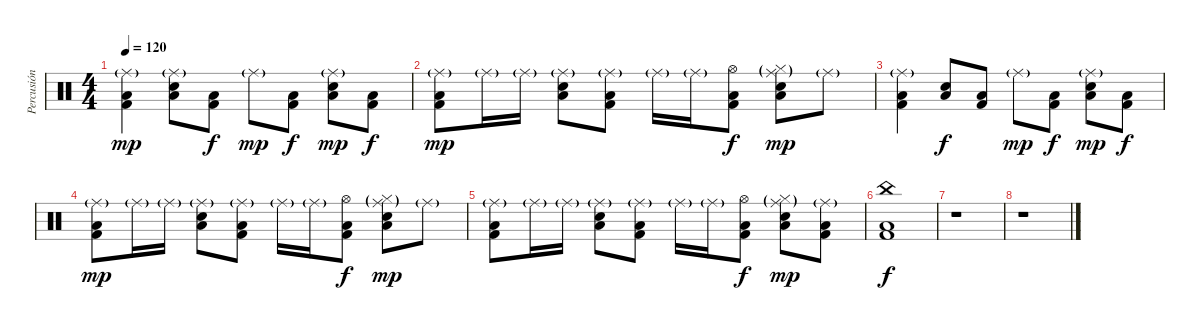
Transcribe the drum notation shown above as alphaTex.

\track ("Percusión" "Percusión") {instrument percussion}
\staff {score}
\articulation defaults
\ts (4 4)
\tempo 120
\clef neutral
\ks c
("Ride (middle)"{g} "Low Floor Tom (hit)" "Kick (hit) 2").4{dy mp} ("Ride (middle)"{g} "Low Tom (hit)" "Electric Snare (hit)").8 ("Low Floor Tom (hit)" "Kick (hit) 2").8{dy f} "Ride (middle)"{g}.8{dy mp} ("Low Floor Tom (hit)" "Kick (hit) 2").8{dy f} ("Ride (middle)"{g} "Low Tom (hit)" "Electric Snare (hit)").8{dy mp} ("Low Floor Tom (hit)" "Kick (hit) 2").8{dy f} |
("Ride (middle)"{g} "Low Floor Tom (hit)" "Kick (hit) 2").8{dy mp} "Ride (middle)"{g}.16 "Ride (middle)"{g}.16 ("Ride (middle)"{g} "Low Tom (hit)" "Electric Snare (hit)").8 ("Ride (middle)"{g} "Low Floor Tom (hit)" "Kick (hit) 2").8 "Ride (middle)"{g}.16 "Ride (middle)"{g}.16 ("Hi-Hat (open)" "Low Floor Tom (hit)" "Kick (hit) 2").8{dy f} ("Ride (middle)"{g} "Hi-Hat (closed)"{g} "Low Tom (hit)" "Electric Snare (hit)").8{dy mp} "Ride (middle)"{g}.8 |
("Ride (middle)"{g} "Low Floor Tom (hit)" "Kick (hit) 2").4 ("Low Tom (hit)" "Electric Snare (hit)").8{dy f} ("Low Floor Tom (hit)" "Kick (hit) 2").8 "Ride (middle)"{g}.8{dy mp} ("Low Floor Tom (hit)" "Kick (hit) 2").8{dy f} ("Ride (middle)"{g} "Low Tom (hit)" "Electric Snare (hit)").8{dy mp} ("Low Floor Tom (hit)" "Kick (hit) 2").8{dy f} |
("Ride (middle)"{g} "Low Floor Tom (hit)" "Kick (hit) 2").8{dy mp} "Ride (middle)"{g}.16 "Ride (middle)"{g}.16 ("Ride (middle)"{g} "Low Tom (hit)" "Electric Snare (hit)").8 ("Ride (middle)"{g} "Low Floor Tom (hit)" "Kick (hit) 2").8 "Ride (middle)"{g}.16 "Ride (middle)"{g}.16 ("Hi-Hat (open)" "Low Floor Tom (hit)" "Kick (hit) 2").8{dy f} ("Ride (middle)"{g} "Hi-Hat (closed)"{g} "Low Tom (hit)" "Electric Snare (hit)").8{dy mp} "Ride (middle)"{g}.8 |
("Ride (middle)"{g} "Low Floor Tom (hit)" "Kick (hit) 2").8 "Ride (middle)"{g}.16 "Ride (middle)"{g}.16 ("Ride (middle)"{g} "Low Tom (hit)" "Electric Snare (hit)").8 ("Ride (middle)"{g} "Low Floor Tom (hit)" "Kick (hit) 2").8 "Ride (middle)"{g}.16 "Ride (middle)"{g}.16 ("Hi-Hat (open)" "Low Floor Tom (hit)" "Kick (hit) 2").8{dy f} ("Ride (middle)"{g} "Hi-Hat (closed)"{g} "Low Tom (hit)" "Electric Snare (hit)").8{dy mp} ("Ride (middle)"{g} "Low Floor Tom (hit)" "Kick (hit) 2").8 |
("China (hit)" "Low Floor Tom (hit)" "Kick (hit) 2").1{dy f} |
r.1 |
\section ("" "")
r.1
